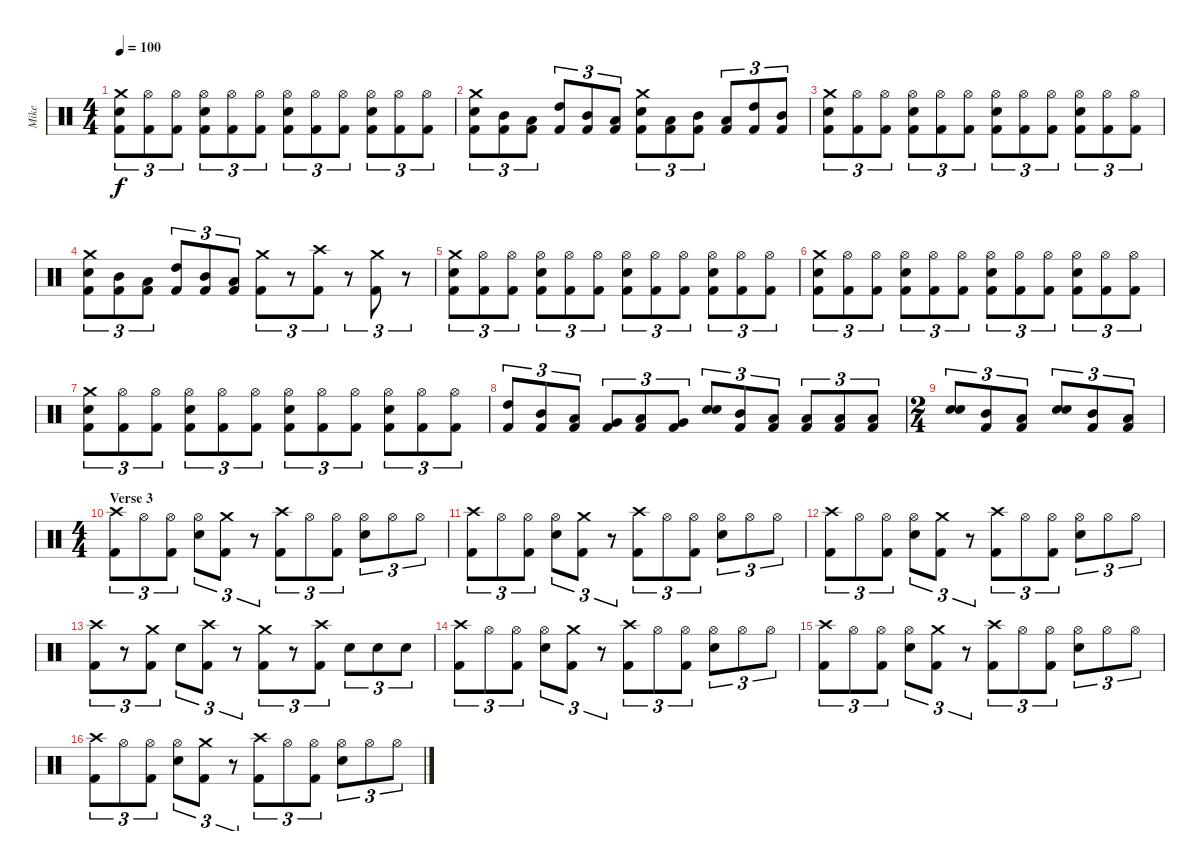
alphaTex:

\track ("Mike" "Mike") {instrument percussion}
\staff {score}
\articulation defaults
\ts (4 4)
\tempo 100
\clef neutral
\ks c
("Crash medium (hit)" "Electric Snare (hit)" "Kick (hit) 2").8{tu (3 2) dy f} ("Hi-Hat (open)" "Kick (hit) 2").8{tu (3 2)} ("Hi-Hat (open)" "Kick (hit) 2").8{tu (3 2)} ("Electric Snare (hit)" "Hi-Hat (open)" "Kick (hit) 2").8{tu (3 2)} ("Hi-Hat (open)" "Kick (hit) 2").8{tu (3 2)} ("Hi-Hat (open)" "Kick (hit) 2").8{tu (3 2)} ("Electric Snare (hit)" "Hi-Hat (open)" "Kick (hit) 2").8{tu (3 2)} ("Hi-Hat (open)" "Kick (hit) 2").8{tu (3 2)} ("Hi-Hat (open)" "Kick (hit) 2").8{tu (3 2)} ("Electric Snare (hit)" "Hi-Hat (open)" "Kick (hit) 2").8{tu (3 2)} ("Hi-Hat (open)" "Kick (hit) 2").8{tu (3 2)} ("Hi-Hat (open)" "Kick (hit) 2").8{tu (3 2)} |
("Crash medium (hit)" "Electric Snare (hit)" "Kick (hit) 2").8{tu (3 2)} ("Mid Tom (hit)" "Kick (hit) 2").8{tu (3 2)} ("Low Tom (hit)" "Kick (hit) 2").8{tu (3 2)} ("High Tom (hit)" "Kick (hit) 2").8{tu (3 2)} ("Mid Tom (hit)" "Kick (hit) 2").8{tu (3 2)} ("Low Tom (hit)" "Kick (hit) 2").8{tu (3 2)} ("Crash medium (hit)" "Electric Snare (hit)" "Kick (hit) 2").8{tu (3 2)} ("Low Tom (hit)" "Kick (hit) 2").8{tu (3 2)} ("Mid Tom (hit)" "Kick (hit) 2").8{tu (3 2)} ("Low Tom (hit)" "Kick (hit) 2").8{tu (3 2)} ("High Tom (hit)" "Kick (hit) 2").8{tu (3 2)} ("Mid Tom (hit)" "Kick (hit) 2").8{tu (3 2)} |
("Crash medium (hit)" "Electric Snare (hit)" "Kick (hit) 2").8{tu (3 2)} ("Hi-Hat (open)" "Kick (hit) 2").8{tu (3 2)} ("Hi-Hat (open)" "Kick (hit) 2").8{tu (3 2)} ("Electric Snare (hit)" "Hi-Hat (open)" "Kick (hit) 2").8{tu (3 2)} ("Hi-Hat (open)" "Kick (hit) 2").8{tu (3 2)} ("Hi-Hat (open)" "Kick (hit) 2").8{tu (3 2)} ("Electric Snare (hit)" "Hi-Hat (open)" "Kick (hit) 2").8{tu (3 2)} ("Hi-Hat (open)" "Kick (hit) 2").8{tu (3 2)} ("Hi-Hat (open)" "Kick (hit) 2").8{tu (3 2)} ("Electric Snare (hit)" "Hi-Hat (open)" "Kick (hit) 2").8{tu (3 2)} ("Hi-Hat (open)" "Kick (hit) 2").8{tu (3 2)} ("Hi-Hat (open)" "Kick (hit) 2").8{tu (3 2)} |
("Crash medium (hit)" "Electric Snare (hit)" "Kick (hit) 2").8{tu (3 2)} ("Mid Tom (hit)" "Kick (hit) 2").8{tu (3 2)} ("Low Tom (hit)" "Kick (hit) 2").8{tu (3 2)} ("High Tom (hit)" "Kick (hit) 2").8{tu (3 2)} ("Mid Tom (hit)" "Kick (hit) 2").8{tu (3 2)} ("Low Tom (hit)" "Kick (hit) 2").8{tu (3 2)} ("Crash medium (hit)" "Kick (hit) 2").8{tu (3 2)} r.8{tu (3 2)} ("Crash high (hit)" "Kick (hit) 2").8{tu (3 2)} r.8{tu (3 2)} ("Crash medium (hit)" "Kick (hit) 2").8{tu (3 2)} r.8{tu (3 2)} |
("Crash medium (hit)" "Electric Snare (hit)" "Kick (hit) 2").8{tu (3 2)} ("Hi-Hat (open)" "Kick (hit) 2").8{tu (3 2)} ("Hi-Hat (open)" "Kick (hit) 2").8{tu (3 2)} ("Electric Snare (hit)" "Hi-Hat (open)" "Kick (hit) 2").8{tu (3 2)} ("Hi-Hat (open)" "Kick (hit) 2").8{tu (3 2)} ("Hi-Hat (open)" "Kick (hit) 2").8{tu (3 2)} ("Electric Snare (hit)" "Hi-Hat (open)" "Kick (hit) 2").8{tu (3 2)} ("Hi-Hat (open)" "Kick (hit) 2").8{tu (3 2)} ("Hi-Hat (open)" "Kick (hit) 2").8{tu (3 2)} ("Electric Snare (hit)" "Hi-Hat (open)" "Kick (hit) 2").8{tu (3 2)} ("Hi-Hat (open)" "Kick (hit) 2").8{tu (3 2)} ("Hi-Hat (open)" "Kick (hit) 2").8{tu (3 2)} |
("Crash medium (hit)" "Electric Snare (hit)" "Kick (hit) 2").8{tu (3 2)} ("Hi-Hat (open)" "Kick (hit) 2").8{tu (3 2)} ("Hi-Hat (open)" "Kick (hit) 2").8{tu (3 2)} ("Electric Snare (hit)" "Hi-Hat (open)" "Kick (hit) 2").8{tu (3 2)} ("Hi-Hat (open)" "Kick (hit) 2").8{tu (3 2)} ("Hi-Hat (open)" "Kick (hit) 2").8{tu (3 2)} ("Electric Snare (hit)" "Hi-Hat (open)" "Kick (hit) 2").8{tu (3 2)} ("Hi-Hat (open)" "Kick (hit) 2").8{tu (3 2)} ("Hi-Hat (open)" "Kick (hit) 2").8{tu (3 2)} ("Electric Snare (hit)" "Hi-Hat (open)" "Kick (hit) 2").8{tu (3 2)} ("Hi-Hat (open)" "Kick (hit) 2").8{tu (3 2)} ("Hi-Hat (open)" "Kick (hit) 2").8{tu (3 2)} |
("Crash medium (hit)" "Electric Snare (hit)" "Kick (hit) 2").8{tu (3 2)} ("Hi-Hat (open)" "Kick (hit) 2").8{tu (3 2)} ("Hi-Hat (open)" "Kick (hit) 2").8{tu (3 2)} ("Electric Snare (hit)" "Hi-Hat (open)" "Kick (hit) 2").8{tu (3 2)} ("Hi-Hat (open)" "Kick (hit) 2").8{tu (3 2)} ("Hi-Hat (open)" "Kick (hit) 2").8{tu (3 2)} ("Electric Snare (hit)" "Hi-Hat (open)" "Kick (hit) 2").8{tu (3 2)} ("Hi-Hat (open)" "Kick (hit) 2").8{tu (3 2)} ("Hi-Hat (open)" "Kick (hit) 2").8{tu (3 2)} ("Electric Snare (hit)" "Hi-Hat (open)" "Kick (hit) 2").8{tu (3 2)} ("Hi-Hat (open)" "Kick (hit) 2").8{tu (3 2)} ("Hi-Hat (open)" "Kick (hit) 2").8{tu (3 2)} |
("High Tom (hit)" "Kick (hit) 2").8{tu (3 2)} ("Mid Tom (hit)" "Kick (hit) 2").8{tu (3 2)} ("Low Tom (hit)" "Kick (hit) 2").8{tu (3 2)} ("Very Low Tom (hit)" "Kick (hit) 2").8{tu (3 2)} ("Low Tom (hit)" "Kick (hit) 2").8{tu (3 2)} ("Very Low Tom (hit)" "Kick (hit) 2").8{tu (3 2)} ("Electric Snare (hit)" "Electric Snare (hit)").8{tu (3 2) bu 240} ("Mid Tom (hit)" "Kick (hit) 2").8{tu (3 2)} ("Low Tom (hit)" "Kick (hit) 2").8{tu (3 2)} ("Low Tom (hit)" "Kick (hit) 2").8{tu (3 2)} ("Low Tom (hit)" "Kick (hit) 2").8{tu (3 2)} ("Low Tom (hit)" "Kick (hit) 2").8{tu (3 2)} |
\ts (2 4)
("Electric Snare (hit)" "Electric Snare (hit)").8{tu (3 2) bu 240} ("Mid Tom (hit)" "Kick (hit) 2").8{tu (3 2)} ("Low Tom (hit)" "Kick (hit) 2").8{tu (3 2)} ("Electric Snare (hit)" "Electric Snare (hit)").8{tu (3 2) bu 240} ("Mid Tom (hit)" "Kick (hit) 2").8{tu (3 2)} ("Low Tom (hit)" "Kick (hit) 2").8{tu (3 2)} |
\ts (4 4)
\section ("" "Verse 3")
("Crash high (hit)" "Kick (hit) 2").8{tu (3 2)} "Hi-Hat (open)".8{tu (3 2)} ("Hi-Hat (open)" "Kick (hit) 2").8{tu (3 2)} ("Hi-Hat (open)" "Electric Snare (hit)").8{tu (3 2)} ("Crash medium (hit)" "Kick (hit) 2").8{tu (3 2)} r.8{tu (3 2)} ("Crash high (hit)" "Kick (hit) 2").8{tu (3 2)} "Hi-Hat (open)".8{tu (3 2)} ("Hi-Hat (open)" "Kick (hit) 2").8{tu (3 2)} ("Hi-Hat (open)" "Electric Snare (hit)").8{tu (3 2)} "Hi-Hat (open)".8{tu (3 2)} "Hi-Hat (open)".8{tu (3 2)} |
("Crash high (hit)" "Kick (hit) 2").8{tu (3 2)} "Hi-Hat (open)".8{tu (3 2)} ("Hi-Hat (open)" "Kick (hit) 2").8{tu (3 2)} ("Hi-Hat (open)" "Electric Snare (hit)").8{tu (3 2)} ("Crash medium (hit)" "Kick (hit) 2").8{tu (3 2)} r.8{tu (3 2)} ("Crash high (hit)" "Kick (hit) 2").8{tu (3 2)} "Hi-Hat (open)".8{tu (3 2)} ("Hi-Hat (open)" "Kick (hit) 2").8{tu (3 2)} ("Hi-Hat (open)" "Electric Snare (hit)").8{tu (3 2)} "Hi-Hat (open)".8{tu (3 2)} "Hi-Hat (open)".8{tu (3 2)} |
("Crash high (hit)" "Kick (hit) 2").8{tu (3 2)} "Hi-Hat (open)".8{tu (3 2)} ("Hi-Hat (open)" "Kick (hit) 2").8{tu (3 2)} ("Hi-Hat (open)" "Electric Snare (hit)").8{tu (3 2)} ("Crash medium (hit)" "Kick (hit) 2").8{tu (3 2)} r.8{tu (3 2)} ("Crash high (hit)" "Kick (hit) 2").8{tu (3 2)} "Hi-Hat (open)".8{tu (3 2)} ("Hi-Hat (open)" "Kick (hit) 2").8{tu (3 2)} ("Hi-Hat (open)" "Electric Snare (hit)").8{tu (3 2)} "Hi-Hat (open)".8{tu (3 2)} "Hi-Hat (open)".8{tu (3 2)} |
("Crash high (hit)" "Kick (hit) 2").8{tu (3 2)} r.8{tu (3 2)} ("Crash medium (hit)" "Kick (hit) 2").8{tu (3 2)} "Electric Snare (hit)".8{tu (3 2)} ("Crash high (hit)" "Kick (hit) 2").8{tu (3 2)} r.8{tu (3 2)} ("Crash medium (hit)" "Kick (hit) 2").8{tu (3 2)} r.8{tu (3 2)} ("Crash high (hit)" "Kick (hit) 2").8{tu (3 2)} "Electric Snare (hit)".8{tu (3 2)} "Electric Snare (hit)".8{tu (3 2)} "Electric Snare (hit)".8{tu (3 2)} |
("Crash high (hit)" "Kick (hit) 2").8{tu (3 2)} "Hi-Hat (open)".8{tu (3 2)} ("Hi-Hat (open)" "Kick (hit) 2").8{tu (3 2)} ("Hi-Hat (open)" "Electric Snare (hit)").8{tu (3 2)} ("Crash medium (hit)" "Kick (hit) 2").8{tu (3 2)} r.8{tu (3 2)} ("Crash high (hit)" "Kick (hit) 2").8{tu (3 2)} "Hi-Hat (open)".8{tu (3 2)} ("Hi-Hat (open)" "Kick (hit) 2").8{tu (3 2)} ("Hi-Hat (open)" "Electric Snare (hit)").8{tu (3 2)} "Hi-Hat (open)".8{tu (3 2)} "Hi-Hat (open)".8{tu (3 2)} |
("Crash high (hit)" "Kick (hit) 2").8{tu (3 2)} "Hi-Hat (open)".8{tu (3 2)} ("Hi-Hat (open)" "Kick (hit) 2").8{tu (3 2)} ("Hi-Hat (open)" "Electric Snare (hit)").8{tu (3 2)} ("Crash medium (hit)" "Kick (hit) 2").8{tu (3 2)} r.8{tu (3 2)} ("Crash high (hit)" "Kick (hit) 2").8{tu (3 2)} "Hi-Hat (open)".8{tu (3 2)} ("Hi-Hat (open)" "Kick (hit) 2").8{tu (3 2)} ("Hi-Hat (open)" "Electric Snare (hit)").8{tu (3 2)} "Hi-Hat (open)".8{tu (3 2)} "Hi-Hat (open)".8{tu (3 2)} |
("Crash high (hit)" "Kick (hit) 2").8{tu (3 2)} "Hi-Hat (open)".8{tu (3 2)} ("Hi-Hat (open)" "Kick (hit) 2").8{tu (3 2)} ("Hi-Hat (open)" "Electric Snare (hit)").8{tu (3 2)} ("Crash medium (hit)" "Kick (hit) 2").8{tu (3 2)} r.8{tu (3 2)} ("Crash high (hit)" "Kick (hit) 2").8{tu (3 2)} "Hi-Hat (open)".8{tu (3 2)} ("Hi-Hat (open)" "Kick (hit) 2").8{tu (3 2)} ("Hi-Hat (open)" "Electric Snare (hit)").8{tu (3 2)} "Hi-Hat (open)".8{tu (3 2)} "Hi-Hat (open)".8{tu (3 2)}
